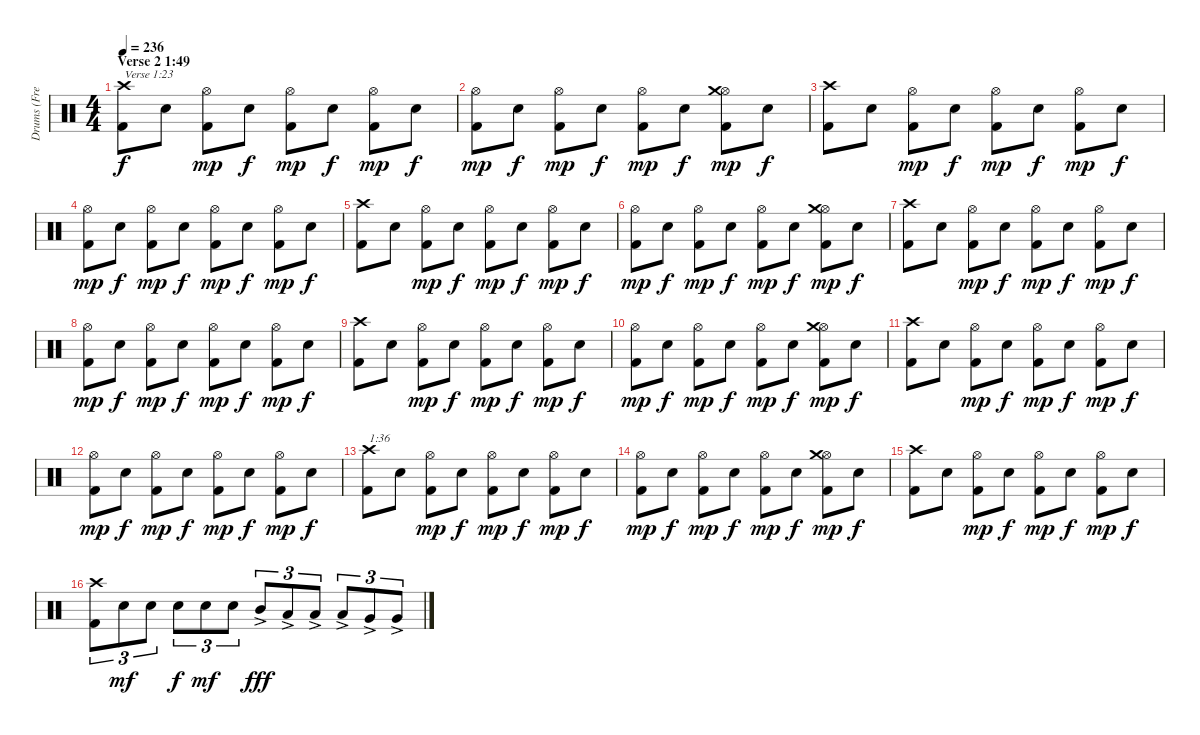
\track ("Drums (Fred Estby)" "Drums (Fre") {instrument percussion}
\staff {score}
\articulation defaults
\ts (4 4)
\section ("" "Verse 2 1:49")
\tempo 236
\clef neutral
\ks c
("Kick (hit) 2" "Crash high (hit)").8{txt "Verse 1:23" dy f} "Electric Snare (hit)".8 ("Kick (hit) 2" "Hi-Hat (open)").8{dy mp} "Electric Snare (hit)".8{dy f} ("Kick (hit) 2" "Hi-Hat (open)").8{dy mp} "Electric Snare (hit)".8{dy f} ("Kick (hit) 2" "Hi-Hat (open)").8{dy mp} "Electric Snare (hit)".8{dy f} |
("Kick (hit) 2" "Hi-Hat (open)").8{dy mp} "Electric Snare (hit)".8{dy f} ("Kick (hit) 2" "Hi-Hat (open)").8{dy mp} "Electric Snare (hit)".8{dy f} ("Kick (hit) 2" "Hi-Hat (open)").8{dy mp} "Electric Snare (hit)".8{dy f} ("Kick (hit) 2" "Hi-Hat (open)" "Crash medium (hit)").8{dy mp} "Electric Snare (hit)".8{dy f} |
("Kick (hit) 2" "Crash high (hit)").8 "Electric Snare (hit)".8 ("Kick (hit) 2" "Hi-Hat (open)").8{dy mp} "Electric Snare (hit)".8{dy f} ("Kick (hit) 2" "Hi-Hat (open)").8{dy mp} "Electric Snare (hit)".8{dy f} ("Kick (hit) 2" "Hi-Hat (open)").8{dy mp} "Electric Snare (hit)".8{dy f} |
("Kick (hit) 2" "Hi-Hat (open)").8{dy mp} "Electric Snare (hit)".8{dy f} ("Kick (hit) 2" "Hi-Hat (open)").8{dy mp} "Electric Snare (hit)".8{dy f} ("Kick (hit) 2" "Hi-Hat (open)").8{dy mp} "Electric Snare (hit)".8{dy f} ("Kick (hit) 2" "Hi-Hat (open)").8{dy mp} "Electric Snare (hit)".8{dy f} |
("Kick (hit) 2" "Crash high (hit)").8 "Electric Snare (hit)".8 ("Kick (hit) 2" "Hi-Hat (open)").8{dy mp} "Electric Snare (hit)".8{dy f} ("Kick (hit) 2" "Hi-Hat (open)").8{dy mp} "Electric Snare (hit)".8{dy f} ("Kick (hit) 2" "Hi-Hat (open)").8{dy mp} "Electric Snare (hit)".8{dy f} |
("Kick (hit) 2" "Hi-Hat (open)").8{dy mp} "Electric Snare (hit)".8{dy f} ("Kick (hit) 2" "Hi-Hat (open)").8{dy mp} "Electric Snare (hit)".8{dy f} ("Kick (hit) 2" "Hi-Hat (open)").8{dy mp} "Electric Snare (hit)".8{dy f} ("Kick (hit) 2" "Hi-Hat (open)" "Crash medium (hit)").8{dy mp} "Electric Snare (hit)".8{dy f} |
("Kick (hit) 2" "Crash high (hit)").8 "Electric Snare (hit)".8 ("Kick (hit) 2" "Hi-Hat (open)").8{dy mp} "Electric Snare (hit)".8{dy f} ("Kick (hit) 2" "Hi-Hat (open)").8{dy mp} "Electric Snare (hit)".8{dy f} ("Kick (hit) 2" "Hi-Hat (open)").8{dy mp} "Electric Snare (hit)".8{dy f} |
("Kick (hit) 2" "Hi-Hat (open)").8{dy mp} "Electric Snare (hit)".8{dy f} ("Kick (hit) 2" "Hi-Hat (open)").8{dy mp} "Electric Snare (hit)".8{dy f} ("Kick (hit) 2" "Hi-Hat (open)").8{dy mp} "Electric Snare (hit)".8{dy f} ("Kick (hit) 2" "Hi-Hat (open)").8{dy mp} "Electric Snare (hit)".8{dy f} |
("Kick (hit) 2" "Crash high (hit)").8 "Electric Snare (hit)".8 ("Kick (hit) 2" "Hi-Hat (open)").8{dy mp} "Electric Snare (hit)".8{dy f} ("Kick (hit) 2" "Hi-Hat (open)").8{dy mp} "Electric Snare (hit)".8{dy f} ("Kick (hit) 2" "Hi-Hat (open)").8{dy mp} "Electric Snare (hit)".8{dy f} |
("Kick (hit) 2" "Hi-Hat (open)").8{dy mp} "Electric Snare (hit)".8{dy f} ("Kick (hit) 2" "Hi-Hat (open)").8{dy mp} "Electric Snare (hit)".8{dy f} ("Kick (hit) 2" "Hi-Hat (open)").8{dy mp} "Electric Snare (hit)".8{dy f} ("Kick (hit) 2" "Hi-Hat (open)" "Crash medium (hit)").8{dy mp} "Electric Snare (hit)".8{dy f} |
("Kick (hit) 2" "Crash high (hit)").8 "Electric Snare (hit)".8 ("Kick (hit) 2" "Hi-Hat (open)").8{dy mp} "Electric Snare (hit)".8{dy f} ("Kick (hit) 2" "Hi-Hat (open)").8{dy mp} "Electric Snare (hit)".8{dy f} ("Kick (hit) 2" "Hi-Hat (open)").8{dy mp} "Electric Snare (hit)".8{dy f} |
("Kick (hit) 2" "Hi-Hat (open)").8{dy mp} "Electric Snare (hit)".8{dy f} ("Kick (hit) 2" "Hi-Hat (open)").8{dy mp} "Electric Snare (hit)".8{dy f} ("Kick (hit) 2" "Hi-Hat (open)").8{dy mp} "Electric Snare (hit)".8{dy f} ("Kick (hit) 2" "Hi-Hat (open)").8{dy mp} "Electric Snare (hit)".8{dy f} |
("Kick (hit) 2" "Crash high (hit)").8{txt "1:36"} "Electric Snare (hit)".8 ("Kick (hit) 2" "Hi-Hat (open)").8{dy mp} "Electric Snare (hit)".8{dy f} ("Kick (hit) 2" "Hi-Hat (open)").8{dy mp} "Electric Snare (hit)".8{dy f} ("Kick (hit) 2" "Hi-Hat (open)").8{dy mp} "Electric Snare (hit)".8{dy f} |
("Kick (hit) 2" "Hi-Hat (open)").8{dy mp} "Electric Snare (hit)".8{dy f} ("Kick (hit) 2" "Hi-Hat (open)").8{dy mp} "Electric Snare (hit)".8{dy f} ("Kick (hit) 2" "Hi-Hat (open)").8{dy mp} "Electric Snare (hit)".8{dy f} ("Kick (hit) 2" "Hi-Hat (open)" "Crash medium (hit)").8{dy mp} "Electric Snare (hit)".8{dy f} |
("Kick (hit) 2" "Crash high (hit)").8 "Electric Snare (hit)".8 ("Kick (hit) 2" "Hi-Hat (open)").8{dy mp} "Electric Snare (hit)".8{dy f} ("Kick (hit) 2" "Hi-Hat (open)").8{dy mp} "Electric Snare (hit)".8{dy f} ("Kick (hit) 2" "Hi-Hat (open)").8{dy mp} "Electric Snare (hit)".8{dy f} |
("Kick (hit) 2" "Crash high (hit)").8{tu (3 2)} "Electric Snare (hit)".8{tu (3 2) dy mf} "Electric Snare (hit)".8{tu (3 2)} "Electric Snare (hit)".8{tu (3 2) dy f} "Electric Snare (hit)".8{tu (3 2) dy mf} "Electric Snare (hit)".8{tu (3 2)} "Mid Tom (hit)"{ac}.8{tu (3 2) dy fff} "Low Tom (hit)"{ac}.8{tu (3 2)} "Low Tom (hit)"{ac}.8{tu (3 2)} "Low Tom (hit)"{ac}.8{tu (3 2)} "Very Low Tom (hit)"{ac}.8{tu (3 2)} "Very Low Tom (hit)"{ac}.8{tu (3 2)}
